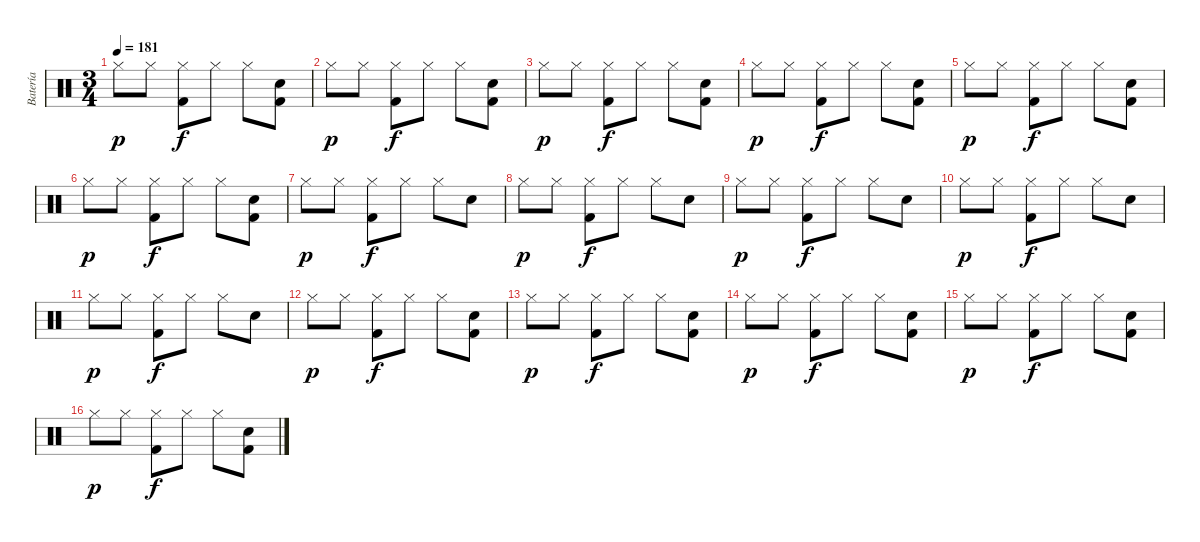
\track ("Batería" "Batería") {instrument percussion}
\staff {score}
\articulation defaults
\ts (3 4)
\tempo 181
\clef neutral
\ks c "Hi-Hat (closed)".8{dy p} "Hi-Hat (closed)".8
("Hi-Hat (closed)" "Kick (hit) 2").8{dy f} "Hi-Hat (closed)".8 "Hi-Hat (closed)".8 ("Electric Snare (hit)" "Kick (hit) 2").8 |
"Hi-Hat (closed)".8{dy p} "Hi-Hat (closed)".8 ("Hi-Hat (closed)" "Kick (hit) 2").8{dy f} "Hi-Hat (closed)".8 "Hi-Hat (closed)".8 ("Electric Snare (hit)" "Kick (hit) 2").8 |
"Hi-Hat (closed)".8{dy p} "Hi-Hat (closed)".8 ("Hi-Hat (closed)" "Kick (hit) 2").8{dy f} "Hi-Hat (closed)".8 "Hi-Hat (closed)".8 ("Electric Snare (hit)" "Kick (hit) 2").8 |
"Hi-Hat (closed)".8{dy p} "Hi-Hat (closed)".8 ("Hi-Hat (closed)" "Kick (hit) 2").8{dy f} "Hi-Hat (closed)".8 "Hi-Hat (closed)".8 ("Electric Snare (hit)" "Kick (hit) 2").8 |
"Hi-Hat (closed)".8{dy p} "Hi-Hat (closed)".8 ("Hi-Hat (closed)" "Kick (hit) 2").8{dy f} "Hi-Hat (closed)".8 "Hi-Hat (closed)".8 ("Electric Snare (hit)" "Kick (hit) 2").8 |
"Hi-Hat (closed)".8{dy p} "Hi-Hat (closed)".8 ("Hi-Hat (closed)" "Kick (hit) 2").8{dy f} "Hi-Hat (closed)".8 "Hi-Hat (closed)".8 ("Electric Snare (hit)" "Kick (hit) 2").8 |
"Hi-Hat (closed)".8{dy p} "Hi-Hat (closed)".8 ("Hi-Hat (closed)" "Kick (hit) 2").8{dy f} "Hi-Hat (closed)".8 "Hi-Hat (closed)".8 "Electric Snare (hit)".8 |
"Hi-Hat (closed)".8{dy p} "Hi-Hat (closed)".8 ("Hi-Hat (closed)" "Kick (hit) 2").8{dy f} "Hi-Hat (closed)".8 "Hi-Hat (closed)".8 "Electric Snare (hit)".8 |
"Hi-Hat (closed)".8{dy p} "Hi-Hat (closed)".8 ("Hi-Hat (closed)" "Kick (hit) 2").8{dy f} "Hi-Hat (closed)".8 "Hi-Hat (closed)".8 "Electric Snare (hit)".8 |
"Hi-Hat (closed)".8{dy p} "Hi-Hat (closed)".8 ("Hi-Hat (closed)" "Kick (hit) 2").8{dy f} "Hi-Hat (closed)".8 "Hi-Hat (closed)".8 "Electric Snare (hit)".8 |
"Hi-Hat (closed)".8{dy p} "Hi-Hat (closed)".8 ("Hi-Hat (closed)" "Kick (hit) 2").8{dy f} "Hi-Hat (closed)".8 "Hi-Hat (closed)".8 "Electric Snare (hit)".8 |
"Hi-Hat (closed)".8{dy p} "Hi-Hat (closed)".8 ("Hi-Hat (closed)" "Kick (hit) 2").8{dy f} "Hi-Hat (closed)".8 "Hi-Hat (closed)".8 ("Electric Snare (hit)" "Kick (hit) 2").8 |
"Hi-Hat (closed)".8{dy p} "Hi-Hat (closed)".8 ("Hi-Hat (closed)" "Kick (hit) 2").8{dy f} "Hi-Hat (closed)".8 "Hi-Hat (closed)".8 ("Electric Snare (hit)" "Kick (hit) 2").8 |
"Hi-Hat (closed)".8{dy p} "Hi-Hat (closed)".8 ("Hi-Hat (closed)" "Kick (hit) 2").8{dy f} "Hi-Hat (closed)".8 "Hi-Hat (closed)".8 ("Electric Snare (hit)" "Kick (hit) 2").8 |
"Hi-Hat (closed)".8{dy p} "Hi-Hat (closed)".8 ("Hi-Hat (closed)" "Kick (hit) 2").8{dy f} "Hi-Hat (closed)".8 "Hi-Hat (closed)".8 ("Electric Snare (hit)" "Kick (hit) 2").8 |
"Hi-Hat (closed)".8{dy p} "Hi-Hat (closed)".8 ("Hi-Hat (closed)" "Kick (hit) 2").8{dy f} "Hi-Hat (closed)".8 "Hi-Hat (closed)".8 ("Electric Snare (hit)" "Kick (hit) 2").8
